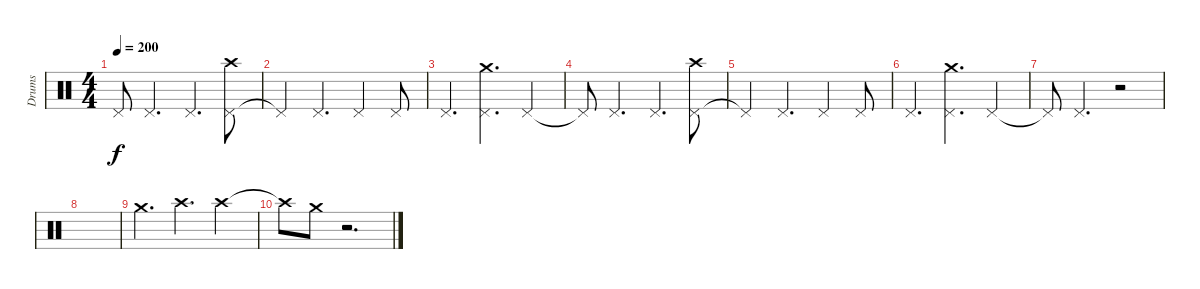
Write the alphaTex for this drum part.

\track ("Drums" "Drums") {instrument percussion}
\staff {score}
\articulation defaults
\ts (4 4)
\tempo 200
\clef neutral
\ks c "Pedal Hi-Hat (hit)"{t}.8{dy f} "Pedal Hi-Hat (hit)".4{d} "Pedal Hi-Hat (hit)".4{d}
("Pedal Hi-Hat (hit)" "Crash high (hit)").8 |
"Pedal Hi-Hat (hit)"{t}.4 "Pedal Hi-Hat (hit)".4{d} "Pedal Hi-Hat (hit)".4 "Pedal Hi-Hat (hit)".8 |
"Pedal Hi-Hat (hit)".4{d} ("Pedal Hi-Hat (hit)" "Crash medium (hit)").4{d} "Pedal Hi-Hat (hit)".4 |
"Pedal Hi-Hat (hit)"{t}.8 "Pedal Hi-Hat (hit)".4{d} "Pedal Hi-Hat (hit)".4{d} ("Pedal Hi-Hat (hit)" "Crash high (hit)").8 |
"Pedal Hi-Hat (hit)"{t}.4 "Pedal Hi-Hat (hit)".4{d} "Pedal Hi-Hat (hit)".4 "Pedal Hi-Hat (hit)".8 |
"Pedal Hi-Hat (hit)".4{d} ("Pedal Hi-Hat (hit)" "Crash medium (hit)").4{d} "Pedal Hi-Hat (hit)".4 |
"Pedal Hi-Hat (hit)"{t}.8 "Pedal Hi-Hat (hit)".4{d} r.2 |
|
"Crash medium (hit)".4{d} "Crash high (hit)".4{d} "Crash high (hit)".4 |
"Crash high (hit)"{t}.8 "Crash medium (hit)".8 r.2{d}
